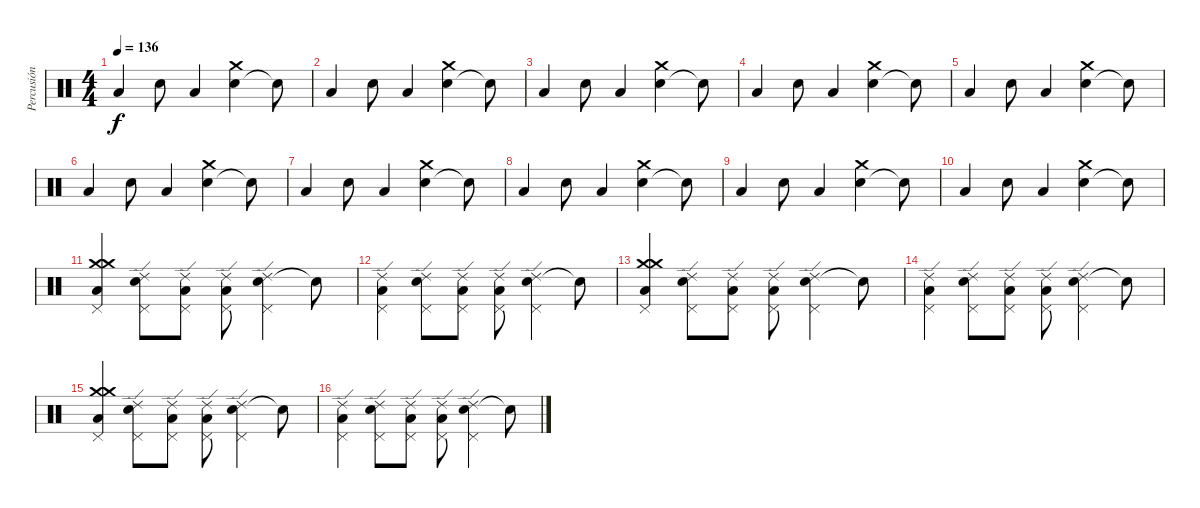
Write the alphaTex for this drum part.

\track ("Percusión" "Percusión") {instrument percussion}
\staff {score}
\articulation defaults
\ts (4 4)
\tempo 136
\clef neutral
\ks c "Low Tom (hit)".4{dy f} "Electric Snare (hit)".8 "Low Tom (hit)".4
("Electric Snare (hit)" "Crash medium (hit)").4 "Snare (hit)"{t}.8 |
"Low Tom (hit)".4 "Electric Snare (hit)".8 "Low Tom (hit)".4 ("Electric Snare (hit)" "Crash medium (hit)").4 "Snare (hit)"{t}.8 |
"Low Tom (hit)".4 "Electric Snare (hit)".8 "Low Tom (hit)".4 ("Electric Snare (hit)" "Crash medium (hit)").4 "Snare (hit)"{t}.8 |
"Low Tom (hit)".4 "Electric Snare (hit)".8 "Low Tom (hit)".4 ("Electric Snare (hit)" "Crash medium (hit)").4 "Snare (hit)"{t}.8 |
"Low Tom (hit)".4 "Electric Snare (hit)".8 "Low Tom (hit)".4 ("Electric Snare (hit)" "Crash medium (hit)").4 "Snare (hit)"{t}.8 |
"Low Tom (hit)".4 "Electric Snare (hit)".8 "Low Tom (hit)".4 ("Electric Snare (hit)" "Crash medium (hit)").4 "Snare (hit)"{t}.8 |
"Low Tom (hit)".4 "Electric Snare (hit)".8 "Low Tom (hit)".4 ("Electric Snare (hit)" "Crash medium (hit)").4 "Snare (hit)"{t}.8 |
"Low Tom (hit)".4 "Electric Snare (hit)".8 "Low Tom (hit)".4 ("Electric Snare (hit)" "Crash medium (hit)").4 "Snare (hit)"{t}.8 |
"Low Tom (hit)".4 "Electric Snare (hit)".8 "Low Tom (hit)".4 ("Electric Snare (hit)" "Crash medium (hit)").4 "Snare (hit)"{t}.8 |
"Low Tom (hit)".4 "Electric Snare (hit)".8 "Low Tom (hit)".4 ("Electric Snare (hit)" "Crash medium (hit)").4 "Snare (hit)"{t}.8 |
("Low Tom (hit)" "Pedal Hi-Hat (hit)" "Crash medium (hit)" "Crash medium (hit)").4 ("Electric Snare (hit)" "Pedal Hi-Hat (hit)" "Ride (edge) 2").8 ("Low Tom (hit)" "Pedal Hi-Hat (hit)" "Ride (edge) 2").8 ("Low Tom (hit)" "Pedal Hi-Hat (hit)" "Ride (edge) 2").8 ("Electric Snare (hit)" "Pedal Hi-Hat (hit)" "Ride (edge) 2").4 "Snare (hit)"{t}.8 |
("Low Tom (hit)" "Pedal Hi-Hat (hit)" "Ride (edge) 2").4 ("Electric Snare (hit)" "Pedal Hi-Hat (hit)" "Ride (edge) 2").8 ("Low Tom (hit)" "Pedal Hi-Hat (hit)" "Ride (edge) 2").8 ("Low Tom (hit)" "Pedal Hi-Hat (hit)" "Ride (edge) 2").8 ("Electric Snare (hit)" "Pedal Hi-Hat (hit)" "Ride (edge) 2").4 "Snare (hit)"{t}.8 |
("Low Tom (hit)" "Pedal Hi-Hat (hit)" "Crash medium (hit)" "Crash medium (hit)").4 ("Electric Snare (hit)" "Pedal Hi-Hat (hit)" "Ride (edge) 2").8 ("Low Tom (hit)" "Pedal Hi-Hat (hit)" "Ride (edge) 2").8 ("Low Tom (hit)" "Pedal Hi-Hat (hit)" "Ride (edge) 2").8 ("Electric Snare (hit)" "Pedal Hi-Hat (hit)" "Ride (edge) 2").4 "Snare (hit)"{t}.8 |
("Low Tom (hit)" "Pedal Hi-Hat (hit)" "Ride (edge) 2").4 ("Electric Snare (hit)" "Pedal Hi-Hat (hit)" "Ride (edge) 2").8 ("Low Tom (hit)" "Pedal Hi-Hat (hit)" "Ride (edge) 2").8 ("Low Tom (hit)" "Pedal Hi-Hat (hit)" "Ride (edge) 2").8 ("Electric Snare (hit)" "Pedal Hi-Hat (hit)" "Ride (edge) 2").4 "Snare (hit)"{t}.8 |
("Low Tom (hit)" "Pedal Hi-Hat (hit)" "Crash medium (hit)" "Crash medium (hit)").4 ("Electric Snare (hit)" "Pedal Hi-Hat (hit)" "Ride (edge) 2").8 ("Low Tom (hit)" "Pedal Hi-Hat (hit)" "Ride (edge) 2").8 ("Low Tom (hit)" "Pedal Hi-Hat (hit)" "Ride (edge) 2").8 ("Electric Snare (hit)" "Pedal Hi-Hat (hit)" "Ride (edge) 2").4 "Snare (hit)"{t}.8 |
("Low Tom (hit)" "Pedal Hi-Hat (hit)" "Ride (edge) 2").4 ("Electric Snare (hit)" "Pedal Hi-Hat (hit)" "Ride (edge) 2").8 ("Low Tom (hit)" "Pedal Hi-Hat (hit)" "Ride (edge) 2").8 ("Low Tom (hit)" "Pedal Hi-Hat (hit)" "Ride (edge) 2").8 ("Electric Snare (hit)" "Pedal Hi-Hat (hit)" "Ride (edge) 2").4 "Snare (hit)"{t}.8
